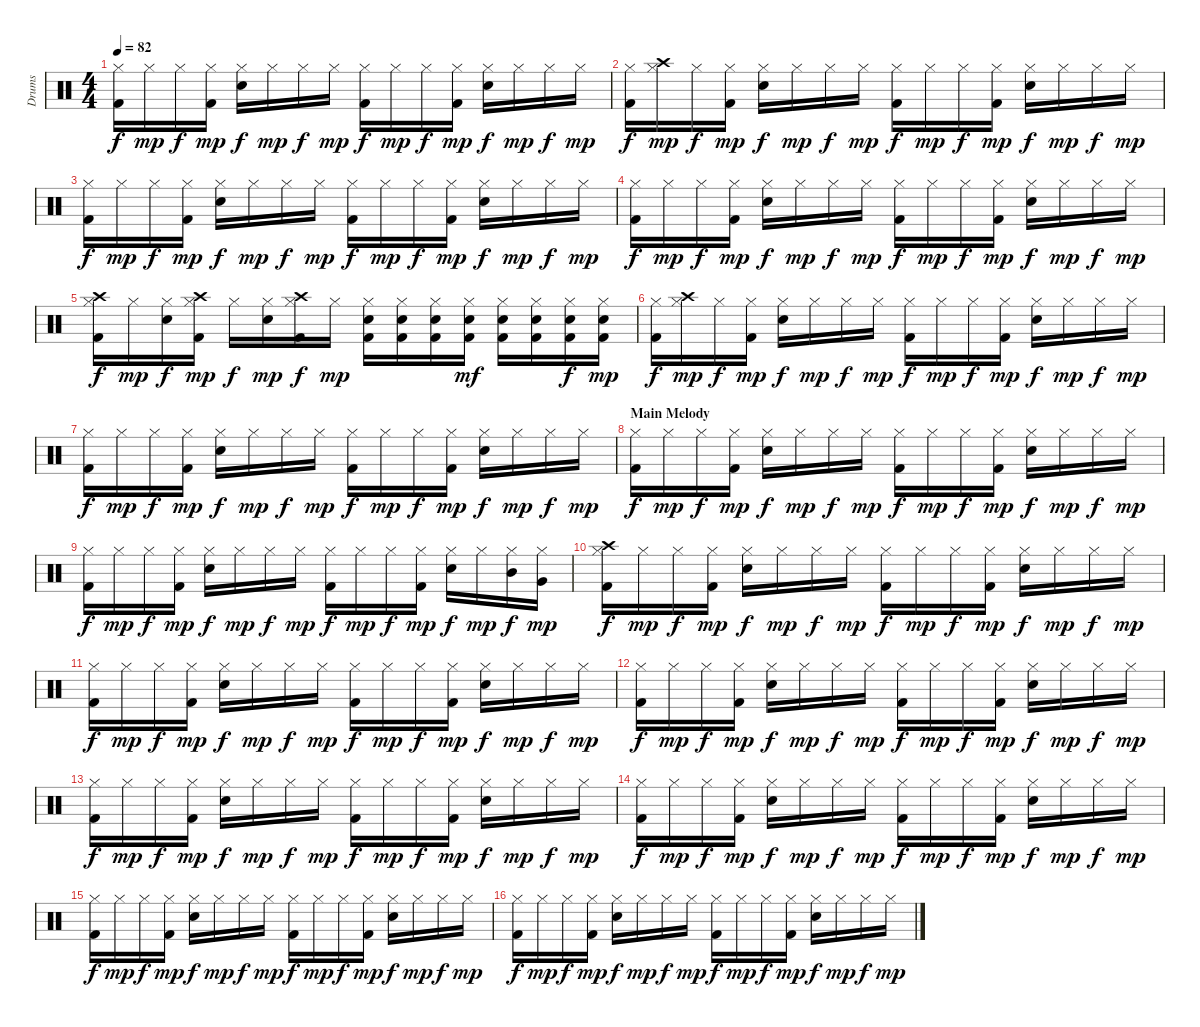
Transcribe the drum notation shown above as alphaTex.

\track ("Drums" "Drums") {instrument percussion}
\staff {score}
\articulation defaults
\ts (4 4)
\tempo 82
\clef neutral
\ks c
("Hi-Hat (closed)" "Kick (hit) 2").16{dy f} "Hi-Hat (closed)".16{dy mp} "Hi-Hat (closed)".16{dy f} ("Hi-Hat (closed)" "Kick (hit) 2").16{dy mp} ("Hi-Hat (closed)" "Snare (hit) 2").16{dy f} "Hi-Hat (closed)".16{dy mp} "Hi-Hat (closed)".16{dy f} "Hi-Hat (closed)".16{dy mp} ("Hi-Hat (closed)" "Kick (hit) 2").16{dy f} "Hi-Hat (closed)".16{dy mp} "Hi-Hat (closed)".16{dy f} ("Hi-Hat (closed)" "Kick (hit) 2").16{dy mp} ("Hi-Hat (closed)" "Snare (hit) 2").16{dy f} "Hi-Hat (closed)".16{dy mp} "Hi-Hat (closed)".16{dy f} "Hi-Hat (closed)".16{dy mp} |
("Hi-Hat (closed)" "Kick (hit) 2").16{dy f} ("Hi-Hat (closed)" "Crash high (hit)").16{dy mp} "Hi-Hat (closed)".16{dy f} ("Hi-Hat (closed)" "Kick (hit) 2").16{dy mp} ("Hi-Hat (closed)" "Snare (hit) 2").16{dy f} "Hi-Hat (closed)".16{dy mp} "Hi-Hat (closed)".16{dy f} "Hi-Hat (closed)".16{dy mp} ("Hi-Hat (closed)" "Kick (hit) 2").16{dy f} "Hi-Hat (closed)".16{dy mp} "Hi-Hat (closed)".16{dy f} ("Hi-Hat (closed)" "Kick (hit) 2").16{dy mp} ("Hi-Hat (closed)" "Snare (hit) 2").16{dy f} "Hi-Hat (closed)".16{dy mp} "Hi-Hat (closed)".16{dy f} "Hi-Hat (closed)".16{dy mp} |
("Hi-Hat (closed)" "Kick (hit) 2").16{dy f} "Hi-Hat (closed)".16{dy mp} "Hi-Hat (closed)".16{dy f} ("Hi-Hat (closed)" "Kick (hit) 2").16{dy mp} ("Hi-Hat (closed)" "Snare (hit) 2").16{dy f} "Hi-Hat (closed)".16{dy mp} "Hi-Hat (closed)".16{dy f} "Hi-Hat (closed)".16{dy mp} ("Hi-Hat (closed)" "Kick (hit) 2").16{dy f} "Hi-Hat (closed)".16{dy mp} "Hi-Hat (closed)".16{dy f} ("Hi-Hat (closed)" "Kick (hit) 2").16{dy mp} ("Hi-Hat (closed)" "Snare (hit) 2").16{dy f} "Hi-Hat (closed)".16{dy mp} "Hi-Hat (closed)".16{dy f} "Hi-Hat (closed)".16{dy mp} |
("Hi-Hat (closed)" "Kick (hit) 2").16{dy f} "Hi-Hat (closed)".16{dy mp} "Hi-Hat (closed)".16{dy f} ("Hi-Hat (closed)" "Kick (hit) 2").16{dy mp} ("Hi-Hat (closed)" "Snare (hit) 2").16{dy f} "Hi-Hat (closed)".16{dy mp} "Hi-Hat (closed)".16{dy f} "Hi-Hat (closed)".16{dy mp} ("Hi-Hat (closed)" "Kick (hit) 2").16{dy f} "Hi-Hat (closed)".16{dy mp} "Hi-Hat (closed)".16{dy f} ("Hi-Hat (closed)" "Kick (hit) 2").16{dy mp} ("Hi-Hat (closed)" "Snare (hit) 2").16{dy f} "Hi-Hat (closed)".16{dy mp} "Hi-Hat (closed)".16{dy f} "Hi-Hat (closed)".16{dy mp} |
("Hi-Hat (closed)" "Crash high (hit)" "Kick (hit) 2").16{dy f} "Hi-Hat (closed)".16{dy mp} ("Hi-Hat (closed)" "Snare (hit) 2").16{dy f} ("Hi-Hat (closed)" "Crash high (hit)" "Kick (hit) 2").16{dy mp} "Hi-Hat (closed)".16{dy f} ("Hi-Hat (closed)" "Snare (hit) 2").16{dy mp} ("Hi-Hat (closed)" "Crash high (hit)" "Kick (hit) 2").16{dy f} "Hi-Hat (closed)".16{dy mp} ("Hi-Hat (closed)" "Snare (hit) 2" "Kick (hit) 2").16 ("Hi-Hat (closed)" "Snare (hit) 2" "Kick (hit) 2").16 ("Hi-Hat (closed)" "Snare (hit) 2" "Kick (hit) 2").16 ("Hi-Hat (closed)" "Snare (hit) 2" "Kick (hit) 2").16{dy mf} ("Hi-Hat (closed)" "Snare (hit) 2" "Kick (hit) 2").16 ("Hi-Hat (closed)" "Snare (hit) 2" "Kick (hit) 2").16 ("Hi-Hat (closed)" "Snare (hit) 2" "Kick (hit) 2").16{dy f} ("Hi-Hat (closed)" "Snare (hit) 2" "Kick (hit) 2").16{dy mp} |
("Hi-Hat (closed)" "Kick (hit) 2").16{dy f} ("Hi-Hat (closed)" "Crash high (hit)").16{dy mp} "Hi-Hat (closed)".16{dy f} ("Hi-Hat (closed)" "Kick (hit) 2").16{dy mp} ("Hi-Hat (closed)" "Snare (hit) 2").16{dy f} "Hi-Hat (closed)".16{dy mp} "Hi-Hat (closed)".16{dy f} "Hi-Hat (closed)".16{dy mp} ("Hi-Hat (closed)" "Kick (hit) 2").16{dy f} "Hi-Hat (closed)".16{dy mp} "Hi-Hat (closed)".16{dy f} ("Hi-Hat (closed)" "Kick (hit) 2").16{dy mp} ("Hi-Hat (closed)" "Snare (hit) 2").16{dy f} "Hi-Hat (closed)".16{dy mp} "Hi-Hat (closed)".16{dy f} "Hi-Hat (closed)".16{dy mp} |
("Hi-Hat (closed)" "Kick (hit) 2").16{dy f} "Hi-Hat (closed)".16{dy mp} "Hi-Hat (closed)".16{dy f} ("Hi-Hat (closed)" "Kick (hit) 2").16{dy mp} ("Hi-Hat (closed)" "Snare (hit) 2").16{dy f} "Hi-Hat (closed)".16{dy mp} "Hi-Hat (closed)".16{dy f} "Hi-Hat (closed)".16{dy mp} ("Hi-Hat (closed)" "Kick (hit) 2").16{dy f} "Hi-Hat (closed)".16{dy mp} "Hi-Hat (closed)".16{dy f} ("Hi-Hat (closed)" "Kick (hit) 2").16{dy mp} ("Hi-Hat (closed)" "Snare (hit) 2").16{dy f} "Hi-Hat (closed)".16{dy mp} "Hi-Hat (closed)".16{dy f} "Hi-Hat (closed)".16{dy mp} |
\section ("" "Main Melody")
("Hi-Hat (closed)" "Kick (hit) 2").16{dy f} "Hi-Hat (closed)".16{dy mp} "Hi-Hat (closed)".16{dy f} ("Hi-Hat (closed)" "Kick (hit) 2").16{dy mp} ("Hi-Hat (closed)" "Snare (hit) 2").16{dy f} "Hi-Hat (closed)".16{dy mp} "Hi-Hat (closed)".16{dy f} "Hi-Hat (closed)".16{dy mp} ("Hi-Hat (closed)" "Kick (hit) 2").16{dy f} "Hi-Hat (closed)".16{dy mp} "Hi-Hat (closed)".16{dy f} ("Hi-Hat (closed)" "Kick (hit) 2").16{dy mp} ("Hi-Hat (closed)" "Snare (hit) 2").16{dy f} "Hi-Hat (closed)".16{dy mp} "Hi-Hat (closed)".16{dy f} "Hi-Hat (closed)".16{dy mp} |
("Hi-Hat (closed)" "Kick (hit) 2").16{dy f} "Hi-Hat (closed)".16{dy mp} "Hi-Hat (closed)".16{dy f} ("Hi-Hat (closed)" "Kick (hit) 2").16{dy mp} ("Hi-Hat (closed)" "Snare (hit) 2").16{dy f} "Hi-Hat (closed)".16{dy mp} "Hi-Hat (closed)".16{dy f} "Hi-Hat (closed)".16{dy mp} ("Hi-Hat (closed)" "Kick (hit) 2").16{dy f} "Hi-Hat (closed)".16{dy mp} "Hi-Hat (closed)".16{dy f} ("Hi-Hat (closed)" "Kick (hit) 2").16{dy mp} ("Hi-Hat (closed)" "Snare (hit) 2").16{dy f} "Hi-Hat (closed)".16{dy mp} ("Hi-Hat (closed)" "Mid Tom (hit)").16{dy f} ("Hi-Hat (closed)" "Very Low Tom (hit)").16{dy mp} |
("Hi-Hat (closed)" "Crash high (hit)" "Kick (hit) 2").16{dy f} "Hi-Hat (closed)".16{dy mp} "Hi-Hat (closed)".16{dy f} ("Hi-Hat (closed)" "Kick (hit) 2").16{dy mp} ("Hi-Hat (closed)" "Snare (hit) 2").16{dy f} "Hi-Hat (closed)".16{dy mp} "Hi-Hat (closed)".16{dy f} "Hi-Hat (closed)".16{dy mp} ("Hi-Hat (closed)" "Kick (hit) 2").16{dy f} "Hi-Hat (closed)".16{dy mp} "Hi-Hat (closed)".16{dy f} ("Hi-Hat (closed)" "Kick (hit) 2").16{dy mp} ("Hi-Hat (closed)" "Snare (hit) 2").16{dy f} "Hi-Hat (closed)".16{dy mp} "Hi-Hat (closed)".16{dy f} "Hi-Hat (closed)".16{dy mp} |
("Hi-Hat (closed)" "Kick (hit) 2").16{dy f} "Hi-Hat (closed)".16{dy mp} "Hi-Hat (closed)".16{dy f} ("Hi-Hat (closed)" "Kick (hit) 2").16{dy mp} ("Hi-Hat (closed)" "Snare (hit) 2").16{dy f} "Hi-Hat (closed)".16{dy mp} "Hi-Hat (closed)".16{dy f} "Hi-Hat (closed)".16{dy mp} ("Hi-Hat (closed)" "Kick (hit) 2").16{dy f} "Hi-Hat (closed)".16{dy mp} "Hi-Hat (closed)".16{dy f} ("Hi-Hat (closed)" "Kick (hit) 2").16{dy mp} ("Hi-Hat (closed)" "Snare (hit) 2").16{dy f} "Hi-Hat (closed)".16{dy mp} "Hi-Hat (closed)".16{dy f} "Hi-Hat (closed)".16{dy mp} |
("Hi-Hat (closed)" "Kick (hit) 2").16{dy f} "Hi-Hat (closed)".16{dy mp} "Hi-Hat (closed)".16{dy f} ("Hi-Hat (closed)" "Kick (hit) 2").16{dy mp} ("Hi-Hat (closed)" "Snare (hit) 2").16{dy f} "Hi-Hat (closed)".16{dy mp} "Hi-Hat (closed)".16{dy f} "Hi-Hat (closed)".16{dy mp} ("Hi-Hat (closed)" "Kick (hit) 2").16{dy f} "Hi-Hat (closed)".16{dy mp} "Hi-Hat (closed)".16{dy f} ("Hi-Hat (closed)" "Kick (hit) 2").16{dy mp} ("Hi-Hat (closed)" "Snare (hit) 2").16{dy f} "Hi-Hat (closed)".16{dy mp} "Hi-Hat (closed)".16{dy f} "Hi-Hat (closed)".16{dy mp} |
("Hi-Hat (closed)" "Kick (hit) 2").16{dy f} "Hi-Hat (closed)".16{dy mp} "Hi-Hat (closed)".16{dy f} ("Hi-Hat (closed)" "Kick (hit) 2").16{dy mp} ("Hi-Hat (closed)" "Snare (hit) 2").16{dy f} "Hi-Hat (closed)".16{dy mp} "Hi-Hat (closed)".16{dy f} "Hi-Hat (closed)".16{dy mp} ("Hi-Hat (closed)" "Kick (hit) 2").16{dy f} "Hi-Hat (closed)".16{dy mp} "Hi-Hat (closed)".16{dy f} ("Hi-Hat (closed)" "Kick (hit) 2").16{dy mp} ("Hi-Hat (closed)" "Snare (hit) 2").16{dy f} "Hi-Hat (closed)".16{dy mp} "Hi-Hat (closed)".16{dy f} "Hi-Hat (closed)".16{dy mp} |
("Hi-Hat (closed)" "Kick (hit) 2").16{dy f} "Hi-Hat (closed)".16{dy mp} "Hi-Hat (closed)".16{dy f} ("Hi-Hat (closed)" "Kick (hit) 2").16{dy mp} ("Hi-Hat (closed)" "Snare (hit) 2").16{dy f} "Hi-Hat (closed)".16{dy mp} "Hi-Hat (closed)".16{dy f} "Hi-Hat (closed)".16{dy mp} ("Hi-Hat (closed)" "Kick (hit) 2").16{dy f} "Hi-Hat (closed)".16{dy mp} "Hi-Hat (closed)".16{dy f} ("Hi-Hat (closed)" "Kick (hit) 2").16{dy mp} ("Hi-Hat (closed)" "Snare (hit) 2").16{dy f} "Hi-Hat (closed)".16{dy mp} "Hi-Hat (closed)".16{dy f} "Hi-Hat (closed)".16{dy mp} |
("Hi-Hat (closed)" "Kick (hit) 2").16{dy f} "Hi-Hat (closed)".16{dy mp} "Hi-Hat (closed)".16{dy f} ("Hi-Hat (closed)" "Kick (hit) 2").16{dy mp} ("Hi-Hat (closed)" "Snare (hit) 2").16{dy f} "Hi-Hat (closed)".16{dy mp} "Hi-Hat (closed)".16{dy f} "Hi-Hat (closed)".16{dy mp} ("Hi-Hat (closed)" "Kick (hit) 2").16{dy f} "Hi-Hat (closed)".16{dy mp} "Hi-Hat (closed)".16{dy f} ("Hi-Hat (closed)" "Kick (hit) 2").16{dy mp} ("Hi-Hat (closed)" "Snare (hit) 2").16{dy f} "Hi-Hat (closed)".16{dy mp} "Hi-Hat (closed)".16{dy f} "Hi-Hat (closed)".16{dy mp} |
("Hi-Hat (closed)" "Kick (hit) 2").16{dy f} "Hi-Hat (closed)".16{dy mp} "Hi-Hat (closed)".16{dy f} ("Hi-Hat (closed)" "Kick (hit) 2").16{dy mp} ("Hi-Hat (closed)" "Snare (hit) 2").16{dy f} "Hi-Hat (closed)".16{dy mp} "Hi-Hat (closed)".16{dy f} "Hi-Hat (closed)".16{dy mp} ("Hi-Hat (closed)" "Kick (hit) 2").16{dy f} "Hi-Hat (closed)".16{dy mp} "Hi-Hat (closed)".16{dy f} ("Hi-Hat (closed)" "Kick (hit) 2").16{dy mp} ("Hi-Hat (closed)" "Snare (hit) 2").16{dy f} "Hi-Hat (closed)".16{dy mp} "Hi-Hat (closed)".16{dy f} "Hi-Hat (closed)".16{dy mp}
